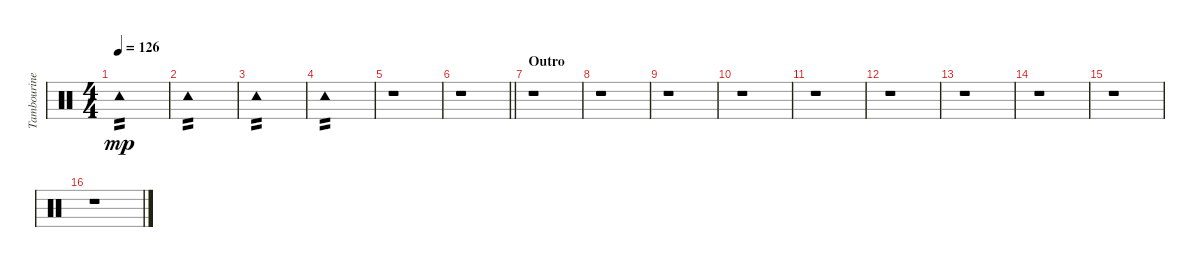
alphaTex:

\track ("Tambourine" "Tambourine") {instrument percussion}
\staff {score}
\articulation defaults
\ts (4 4)
\tempo 126
\clef neutral
\ks c "Tambourine (hit)".1{tp 2 dy mp}
|
"Tambourine (hit)".1{tp 2} |
"Tambourine (hit)".1{tp 2} |
"Tambourine (hit)".1{tp 2} |
r.1 |
\barLineRight lightlight
r.1 |
\section ("" "Outro")
r.1 |
r.1 |
r.1 |
r.1 |
r.1 |
r.1 |
r.1 |
r.1 |
r.1 |
r.1
